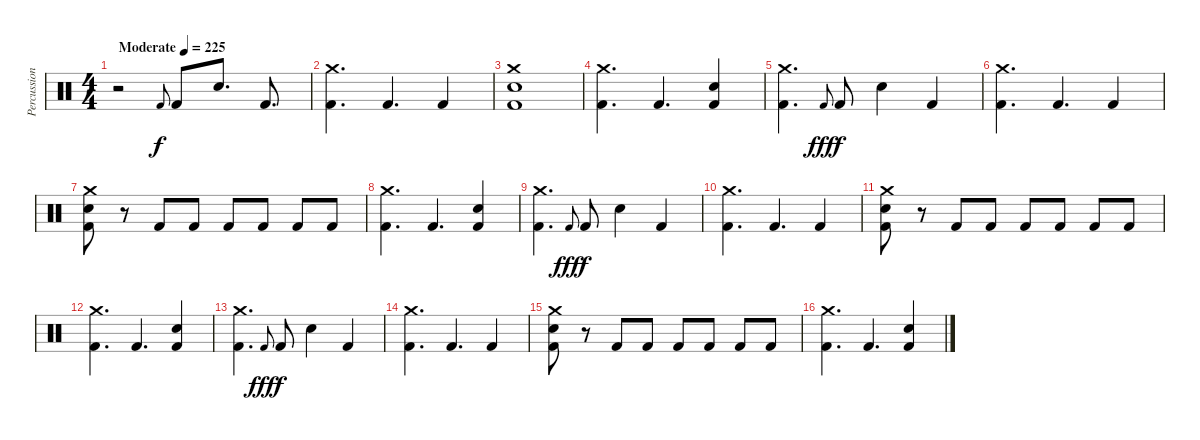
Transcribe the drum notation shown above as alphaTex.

\track ("Percussion" "Percussion") {instrument percussion}
\staff {score}
\articulation defaults
\ts (4 4)
\tempo (225 "Moderate")
\clef neutral
\ks c
r.2{dy f} "Kick (hit) 2".8{gr onbeat} "Kick (hit) 2".8 "Electric Snare (hit)".8{d} "Kick (hit) 2".8{d} |
("Crash medium (hit)" "Kick (hit) 2").4{d} "Kick (hit) 2".4{d} "Kick (hit) 2".4 |
("Crash medium (hit)" "Electric Snare (hit)" "Kick (hit) 2").1 |
("Crash medium (hit)" "Kick (hit) 2").4{d} "Kick (hit) 2".4{d} ("Electric Snare (hit)" "Kick (hit) 2").4 |
("Crash medium (hit)" "Kick (hit) 2").4{d} "Kick (hit) 2".8{gr onbeat dy fff} "Kick (hit) 2".8{dy f} "Electric Snare (hit)".4 "Kick (hit) 2".4 |
("Crash medium (hit)" "Kick (hit) 2").4{d} "Kick (hit) 2".4{d} "Kick (hit) 2".4 |
("Crash medium (hit)" "Electric Snare (hit)" "Kick (hit) 2").8 r.8 "Kick (hit) 2".8 "Kick (hit) 2".8 "Kick (hit) 2".8 "Kick (hit) 2".8 "Kick (hit) 2".8 "Kick (hit) 2".8 |
("Crash medium (hit)" "Kick (hit) 2").4{d} "Kick (hit) 2".4{d} ("Electric Snare (hit)" "Kick (hit) 2").4 |
("Crash medium (hit)" "Kick (hit) 2").4{d} "Kick (hit) 2".8{gr onbeat dy fff} "Kick (hit) 2".8{dy f} "Electric Snare (hit)".4 "Kick (hit) 2".4 |
("Crash medium (hit)" "Kick (hit) 2").4{d} "Kick (hit) 2".4{d} "Kick (hit) 2".4 |
("Crash medium (hit)" "Electric Snare (hit)" "Kick (hit) 2").8 r.8 "Kick (hit) 2".8 "Kick (hit) 2".8 "Kick (hit) 2".8 "Kick (hit) 2".8 "Kick (hit) 2".8 "Kick (hit) 2".8 |
("Crash medium (hit)" "Kick (hit) 2").4{d} "Kick (hit) 2".4{d} ("Electric Snare (hit)" "Kick (hit) 2").4 |
("Crash medium (hit)" "Kick (hit) 2").4{d} "Kick (hit) 2".8{gr onbeat dy fff} "Kick (hit) 2".8{dy f} "Electric Snare (hit)".4 "Kick (hit) 2".4 |
("Crash medium (hit)" "Kick (hit) 2").4{d} "Kick (hit) 2".4{d} "Kick (hit) 2".4 |
("Crash medium (hit)" "Electric Snare (hit)" "Kick (hit) 2").8 r.8 "Kick (hit) 2".8 "Kick (hit) 2".8 "Kick (hit) 2".8 "Kick (hit) 2".8 "Kick (hit) 2".8 "Kick (hit) 2".8 |
("Crash medium (hit)" "Kick (hit) 2").4{d} "Kick (hit) 2".4{d} ("Electric Snare (hit)" "Kick (hit) 2").4
